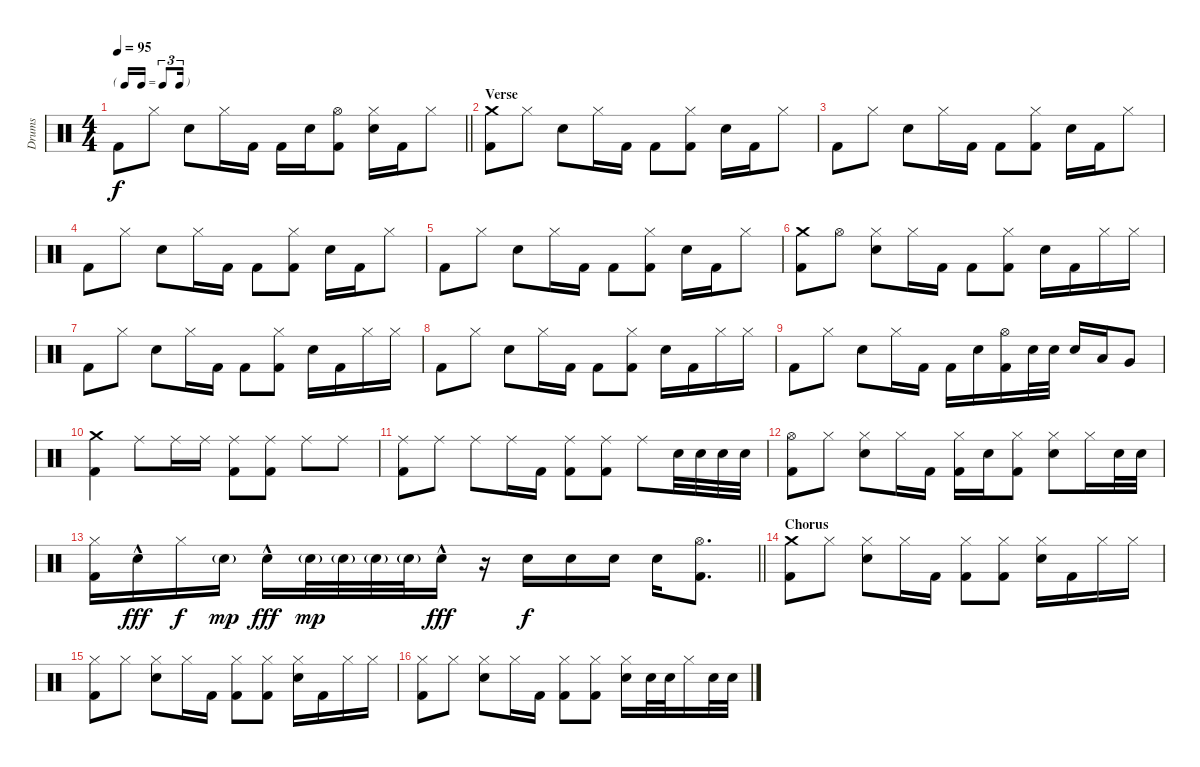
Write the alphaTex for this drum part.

\track ("Drums" "Drums") {instrument percussion}
\staff {score}
\articulation defaults
\ts (4 4)
\tf triplet16th
\tempo 95
\clef neutral
\barLineRight lightlight
\ks c "Kick (hit) 2".8{dy f} "Hi-Hat (closed)".8 "Snare (hit) 2".8 "Hi-Hat (closed)".16 "Kick (hit) 2".16 "Kick (hit) 2".16 "Snare (hit) 2".16
("Hi-Hat (open)" "Kick (hit) 2").8 ("Hi-Hat (closed)" "Snare (hit) 2").16 "Kick (hit) 2".16 "Hi-Hat (closed)".8 |
\section ("" "Verse")
("Crash medium (hit)" "Kick (hit) 2").8 "Hi-Hat (closed)".8 "Snare (hit) 2".8 "Hi-Hat (closed)".16 "Kick (hit) 2".16 "Kick (hit) 2".8 ("Hi-Hat (closed)" "Kick (hit) 2").8 "Snare (hit) 2".16 "Kick (hit) 2".16 "Hi-Hat (closed)".8 |
"Kick (hit) 2".8 "Hi-Hat (closed)".8 "Snare (hit) 2".8 "Hi-Hat (closed)".16 "Kick (hit) 2".16 "Kick (hit) 2".8 ("Hi-Hat (closed)" "Kick (hit) 2").8 "Snare (hit) 2".16 "Kick (hit) 2".16 "Hi-Hat (closed)".8 |
"Kick (hit) 2".8 "Hi-Hat (closed)".8 "Snare (hit) 2".8 "Hi-Hat (closed)".16 "Kick (hit) 2".16 "Kick (hit) 2".8 ("Hi-Hat (closed)" "Kick (hit) 2").8 "Snare (hit) 2".16 "Kick (hit) 2".16 "Hi-Hat (closed)".8 |
"Kick (hit) 2".8 "Hi-Hat (closed)".8 "Snare (hit) 2".8 "Hi-Hat (closed)".16 "Kick (hit) 2".16 "Kick (hit) 2".8 ("Hi-Hat (closed)" "Kick (hit) 2").8 "Snare (hit) 2".16 "Kick (hit) 2".16 "Hi-Hat (closed)".8 |
("Crash medium (hit)" "Kick (hit) 2").8 "Hi-Hat (open)".8 ("Hi-Hat (closed)" "Snare (hit) 2").8 "Hi-Hat (closed)".16 "Kick (hit) 2".16 "Kick (hit) 2".8 ("Hi-Hat (closed)" "Kick (hit) 2").8 "Snare (hit) 2".16 "Kick (hit) 2".16 "Hi-Hat (closed)".16 "Hi-Hat (closed)".16 |
"Kick (hit) 2".8 "Hi-Hat (closed)".8 "Snare (hit) 2".8 "Hi-Hat (closed)".16 "Kick (hit) 2".16 "Kick (hit) 2".8 ("Hi-Hat (closed)" "Kick (hit) 2").8 "Snare (hit) 2".16 "Kick (hit) 2".16 "Hi-Hat (closed)".16 "Hi-Hat (closed)".16 |
"Kick (hit) 2".8 "Hi-Hat (closed)".8 "Snare (hit) 2".8 "Hi-Hat (closed)".16 "Kick (hit) 2".16 "Kick (hit) 2".8 ("Hi-Hat (closed)" "Kick (hit) 2").8 "Snare (hit) 2".16 "Kick (hit) 2".16 "Hi-Hat (closed)".16 "Hi-Hat (closed)".16 |
"Kick (hit) 2".8 "Hi-Hat (closed)".8 "Snare (hit) 2".8 "Hi-Hat (closed)".16 "Kick (hit) 2".16 "Kick (hit) 2".16 "Snare (hit) 2".16 ("Hi-Hat (open)" "Kick (hit) 2").16 "Snare (hit) 2".32 "Snare (hit) 2".32 "Snare (hit) 2".16 "Low Tom (hit)".16 "Very Low Tom (hit)".8 |
("Crash medium (hit)" "Kick (hit) 2").4 "Ride (middle)".8 "Ride (middle)".16 "Ride (middle)".16 ("Ride (middle)" "Kick (hit) 2").8 ("Ride (middle)" "Kick (hit) 2").8 "Ride (middle)".8 "Ride (middle)".8 |
("Ride (middle)" "Kick (hit) 2").8 "Ride (middle)".8 "Ride (middle)".8 "Ride (middle)".16 "Kick (hit) 2".16 ("Ride (middle)" "Kick (hit) 2").8 ("Ride (middle)" "Kick (hit) 2").8 "Ride (middle)".8 "Snare (hit) 2".32 "Snare (hit) 2".32 "Snare (hit) 2".32 "Snare (hit) 2".32 |
("Hi-Hat (open)" "Kick (hit) 2").8 "Hi-Hat (closed)".8 ("Hi-Hat (closed)" "Snare (hit) 2").8 "Hi-Hat (closed)".16 "Kick (hit) 2".16 ("Hi-Hat (closed)" "Kick (hit) 2").16 "Snare (hit) 2".16 ("Hi-Hat (closed)" "Kick (hit) 2").8 ("Hi-Hat (closed)" "Snare (hit) 2").8 "Hi-Hat (closed)".16 "Snare (hit) 2".32 "Snare (hit) 2".32 |
\barLineRight lightlight
("Hi-Hat (closed)" "Kick (hit) 2").16 "Snare (hit) 2"{hac}.16{dy fff} "Hi-Hat (closed)".16{dy f} "Snare (hit) 2"{g}.16{dy mp} "Snare (hit) 2"{hac}.16{dy fff} "Snare (hit) 2"{g}.32{dy mp} "Snare (hit) 2"{g}.32 "Snare (hit) 2"{g}.32 "Snare (hit) 2"{g}.32 "Snare (hit) 2"{hac}.16{dy fff} r.16 "Snare (hit) 2".16{dy f} "Snare (hit) 2".16 "Snare (hit) 2".16 "Snare (hit) 2".16 ("Hi-Hat (open)" "Kick (hit) 2").8{d} |
\section ("" "Chorus")
("Crash medium (hit)" "Kick (hit) 2").8 "Hi-Hat (closed)".8 ("Hi-Hat (closed)" "Snare (hit) 2").8 "Hi-Hat (closed)".16 "Kick (hit) 2".16 ("Hi-Hat (closed)" "Kick (hit) 2").8 ("Hi-Hat (closed)" "Kick (hit) 2").8 ("Hi-Hat (closed)" "Snare (hit) 2").16 "Kick (hit) 2".16 "Hi-Hat (closed)".16 "Hi-Hat (closed)".16 |
("Hi-Hat (closed)" "Kick (hit) 2").8 "Hi-Hat (closed)".8 ("Hi-Hat (closed)" "Snare (hit) 2").8 "Hi-Hat (closed)".16 "Kick (hit) 2".16 ("Hi-Hat (closed)" "Kick (hit) 2").8 ("Hi-Hat (closed)" "Kick (hit) 2").8 ("Hi-Hat (closed)" "Snare (hit) 2").16 "Kick (hit) 2".16 "Hi-Hat (closed)".16 "Hi-Hat (closed)".16 |
("Hi-Hat (closed)" "Kick (hit) 2").8 "Hi-Hat (closed)".8 ("Hi-Hat (closed)" "Snare (hit) 2").8 "Hi-Hat (closed)".16 "Kick (hit) 2".16 ("Hi-Hat (closed)" "Kick (hit) 2").8 ("Hi-Hat (closed)" "Kick (hit) 2").8 ("Hi-Hat (closed)" "Snare (hit) 2").16 "Snare (hit) 2".32 "Snare (hit) 2".32 "Hi-Hat (closed)".16 "Snare (hit) 2".32 "Snare (hit) 2".32
